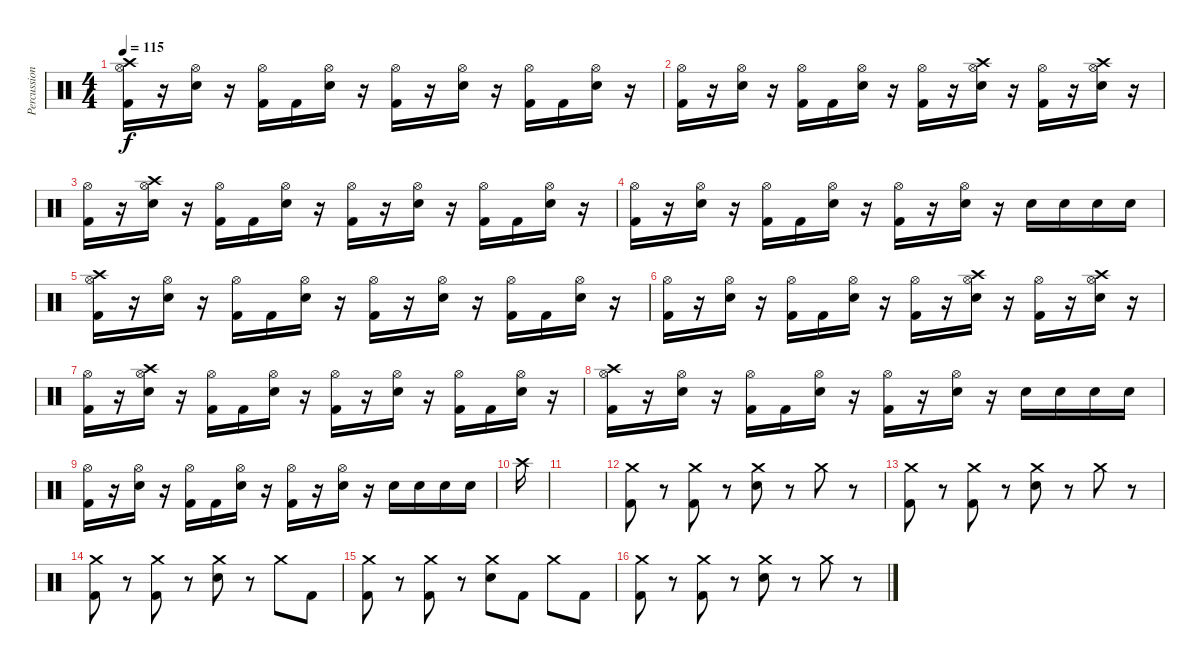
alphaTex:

\track ("Percussion" "Percussion") {instrument percussion}
\staff {score}
\articulation defaults
\ts (4 4)
\tempo 115
\clef neutral
\ks c
("Hi-Hat (open)" "Crash high (hit)" "Kick (hit) 2").16{dy f} r.16 ("Hi-Hat (open)" "Electric Snare (hit)").16 r.16 ("Hi-Hat (open)" "Kick (hit) 2").16 "Kick (hit) 2".16 ("Hi-Hat (open)" "Electric Snare (hit)").16 r.16 ("Hi-Hat (open)" "Kick (hit) 2").16 r.16 ("Hi-Hat (open)" "Electric Snare (hit)").16 r.16 ("Hi-Hat (open)" "Kick (hit) 2").16 "Kick (hit) 2".16 ("Hi-Hat (open)" "Electric Snare (hit)").16 r.16 |
("Hi-Hat (open)" "Kick (hit) 2").16 r.16 ("Hi-Hat (open)" "Electric Snare (hit)").16 r.16 ("Hi-Hat (open)" "Kick (hit) 2").16 "Kick (hit) 2".16 ("Hi-Hat (open)" "Electric Snare (hit)").16 r.16 ("Hi-Hat (open)" "Kick (hit) 2").16 r.16 ("Hi-Hat (open)" "Crash high (hit)" "Electric Snare (hit)").16 r.16 ("Hi-Hat (open)" "Kick (hit) 2").16 r.16 ("Hi-Hat (open)" "Crash high (hit)" "Electric Snare (hit)").16 r.16 |
("Hi-Hat (open)" "Kick (hit) 2").16 r.16 ("Hi-Hat (open)" "Crash high (hit)" "Electric Snare (hit)").16 r.16 ("Hi-Hat (open)" "Kick (hit) 2").16 "Kick (hit) 2".16 ("Hi-Hat (open)" "Electric Snare (hit)").16 r.16 ("Hi-Hat (open)" "Kick (hit) 2").16 r.16 ("Hi-Hat (open)" "Electric Snare (hit)").16 r.16 ("Hi-Hat (open)" "Kick (hit) 2").16 "Kick (hit) 2".16 ("Hi-Hat (open)" "Electric Snare (hit)").16 r.16 |
("Hi-Hat (open)" "Kick (hit) 2").16 r.16 ("Hi-Hat (open)" "Electric Snare (hit)").16 r.16 ("Hi-Hat (open)" "Kick (hit) 2").16 "Kick (hit) 2".16 ("Hi-Hat (open)" "Electric Snare (hit)").16 r.16 ("Hi-Hat (open)" "Kick (hit) 2").16 r.16 ("Hi-Hat (open)" "Electric Snare (hit)").16 r.16 "Electric Snare (hit)".16 "Electric Snare (hit)".16 "Electric Snare (hit)".16 "Electric Snare (hit)".16 |
("Hi-Hat (open)" "Crash high (hit)" "Kick (hit) 2").16 r.16 ("Hi-Hat (open)" "Electric Snare (hit)").16 r.16 ("Hi-Hat (open)" "Kick (hit) 2").16 "Kick (hit) 2".16 ("Hi-Hat (open)" "Electric Snare (hit)").16 r.16 ("Hi-Hat (open)" "Kick (hit) 2").16 r.16 ("Hi-Hat (open)" "Electric Snare (hit)").16 r.16 ("Hi-Hat (open)" "Kick (hit) 2").16 "Kick (hit) 2".16 ("Hi-Hat (open)" "Electric Snare (hit)").16 r.16 |
("Hi-Hat (open)" "Kick (hit) 2").16 r.16 ("Hi-Hat (open)" "Electric Snare (hit)").16 r.16 ("Hi-Hat (open)" "Kick (hit) 2").16 "Kick (hit) 2".16 ("Hi-Hat (open)" "Electric Snare (hit)").16 r.16 ("Hi-Hat (open)" "Kick (hit) 2").16 r.16 ("Hi-Hat (open)" "Crash high (hit)" "Electric Snare (hit)").16 r.16 ("Hi-Hat (open)" "Kick (hit) 2").16 r.16 ("Hi-Hat (open)" "Crash high (hit)" "Electric Snare (hit)").16 r.16 |
("Hi-Hat (open)" "Kick (hit) 2").16 r.16 ("Hi-Hat (open)" "Crash high (hit)" "Electric Snare (hit)").16 r.16 ("Hi-Hat (open)" "Kick (hit) 2").16 "Kick (hit) 2".16 ("Hi-Hat (open)" "Electric Snare (hit)").16 r.16 ("Hi-Hat (open)" "Kick (hit) 2").16 r.16 ("Hi-Hat (open)" "Electric Snare (hit)").16 r.16 ("Hi-Hat (open)" "Kick (hit) 2").16 "Kick (hit) 2".16 ("Hi-Hat (open)" "Electric Snare (hit)").16 r.16 |
("Hi-Hat (open)" "Crash high (hit)" "Kick (hit) 2").16 r.16 ("Hi-Hat (open)" "Electric Snare (hit)").16 r.16 ("Hi-Hat (open)" "Kick (hit) 2").16 "Kick (hit) 2".16 ("Hi-Hat (open)" "Electric Snare (hit)").16 r.16 ("Hi-Hat (open)" "Kick (hit) 2").16 r.16 ("Hi-Hat (open)" "Electric Snare (hit)").16 r.16 "Electric Snare (hit)".16 "Electric Snare (hit)".16 "Electric Snare (hit)".16 "Electric Snare (hit)".16 |
("Hi-Hat (open)" "Kick (hit) 2").16 r.16 ("Hi-Hat (open)" "Electric Snare (hit)").16 r.16 ("Hi-Hat (open)" "Kick (hit) 2").16 "Kick (hit) 2".16 ("Hi-Hat (open)" "Electric Snare (hit)").16 r.16 ("Hi-Hat (open)" "Kick (hit) 2").16 r.16 ("Hi-Hat (open)" "Electric Snare (hit)").16 r.16 "Electric Snare (hit)".16 "Electric Snare (hit)".16 "Electric Snare (hit)".16 "Electric Snare (hit)".16 |
"Crash high (hit)".16 |
|
("Crash medium (hit)" "Kick (hit) 2").8 r.8 ("Crash medium (hit)" "Kick (hit) 2").8 r.8 ("Crash medium (hit)" "Electric Snare (hit)").8 r.8 "Crash medium (hit)".8 r.8 |
("Crash medium (hit)" "Kick (hit) 2").8 r.8 ("Crash medium (hit)" "Kick (hit) 2").8 r.8 ("Crash medium (hit)" "Electric Snare (hit)").8 r.8 "Crash medium (hit)".8 r.8 |
("Crash medium (hit)" "Kick (hit) 2").8 r.8 ("Crash medium (hit)" "Kick (hit) 2").8 r.8 ("Crash medium (hit)" "Electric Snare (hit)").8 r.8 "Crash medium (hit)".8 "Kick (hit) 2".8 |
("Crash medium (hit)" "Kick (hit) 2").8 r.8 ("Crash medium (hit)" "Kick (hit) 2").8 r.8 ("Crash medium (hit)" "Electric Snare (hit)").8 "Kick (hit) 2".8 "Crash medium (hit)".8 "Kick (hit) 2".8 |
("Crash medium (hit)" "Kick (hit) 2").8 r.8 ("Crash medium (hit)" "Kick (hit) 2").8 r.8 ("Crash medium (hit)" "Electric Snare (hit)").8 r.8 "Crash medium (hit)".8 r.8
